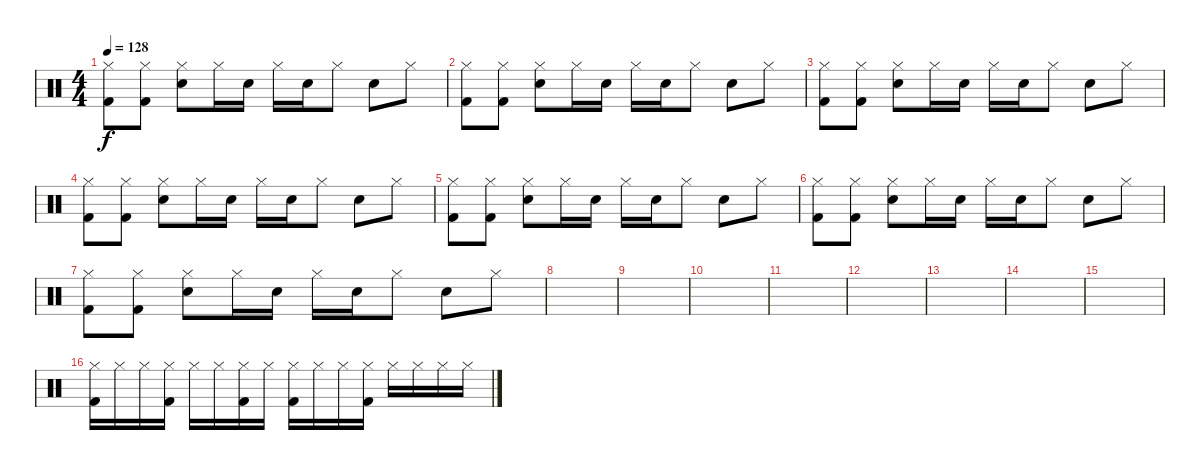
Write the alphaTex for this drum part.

\track "" {solo instrument percussion}
\staff {score}
\articulation defaults
\ts (4 4)
\tempo 128
\clef neutral
\ks c
("Hi-Hat (closed)" "Kick (hit) 2").8{dy f} ("Hi-Hat (closed)" "Kick (hit) 2").8 ("Hi-Hat (closed)" "Snare (hit) 2").8 "Hi-Hat (closed)".16 "Snare (hit) 2".16 "Hi-Hat (closed)".16 "Snare (hit) 2".16 "Hi-Hat (closed)".8 "Snare (hit) 2".8 "Hi-Hat (closed)".8 |
("Hi-Hat (closed)" "Kick (hit) 2").8 ("Hi-Hat (closed)" "Kick (hit) 2").8 ("Hi-Hat (closed)" "Snare (hit) 2").8 "Hi-Hat (closed)".16 "Snare (hit) 2".16 "Hi-Hat (closed)".16 "Snare (hit) 2".16 "Hi-Hat (closed)".8 "Snare (hit) 2".8 "Hi-Hat (closed)".8 |
("Hi-Hat (closed)" "Kick (hit) 2").8 ("Hi-Hat (closed)" "Kick (hit) 2").8 ("Hi-Hat (closed)" "Snare (hit) 2").8 "Hi-Hat (closed)".16 "Snare (hit) 2".16 "Hi-Hat (closed)".16 "Snare (hit) 2".16 "Hi-Hat (closed)".8 "Snare (hit) 2".8 "Hi-Hat (closed)".8 |
("Hi-Hat (closed)" "Kick (hit) 2").8 ("Hi-Hat (closed)" "Kick (hit) 2").8 ("Hi-Hat (closed)" "Snare (hit) 2").8 "Hi-Hat (closed)".16 "Snare (hit) 2".16 "Hi-Hat (closed)".16 "Snare (hit) 2".16 "Hi-Hat (closed)".8 "Snare (hit) 2".8 "Hi-Hat (closed)".8 |
("Hi-Hat (closed)" "Kick (hit) 2").8 ("Hi-Hat (closed)" "Kick (hit) 2").8 ("Hi-Hat (closed)" "Snare (hit) 2").8 "Hi-Hat (closed)".16 "Snare (hit) 2".16 "Hi-Hat (closed)".16 "Snare (hit) 2".16 "Hi-Hat (closed)".8 "Snare (hit) 2".8 "Hi-Hat (closed)".8 |
("Hi-Hat (closed)" "Kick (hit) 2").8 ("Hi-Hat (closed)" "Kick (hit) 2").8 ("Hi-Hat (closed)" "Snare (hit) 2").8 "Hi-Hat (closed)".16 "Snare (hit) 2".16 "Hi-Hat (closed)".16 "Snare (hit) 2".16 "Hi-Hat (closed)".8 "Snare (hit) 2".8 "Hi-Hat (closed)".8 |
("Hi-Hat (closed)" "Kick (hit) 2").8 ("Hi-Hat (closed)" "Kick (hit) 2").8 ("Hi-Hat (closed)" "Snare (hit) 2").8 "Hi-Hat (closed)".16 "Snare (hit) 2".16 "Hi-Hat (closed)".16 "Snare (hit) 2".16 "Hi-Hat (closed)".8 "Snare (hit) 2".8 "Hi-Hat (closed)".8 |
|
|
|
|
|
|
|
|
("Kick (hit) 2" "Hi-Hat (closed)").16 "Hi-Hat (closed)".16 "Hi-Hat (closed)".16 ("Kick (hit) 2" "Hi-Hat (closed)").16 "Hi-Hat (closed)".16 "Hi-Hat (closed)".16 ("Kick (hit) 2" "Hi-Hat (closed)").16 "Hi-Hat (closed)".16 ("Kick (hit) 2" "Hi-Hat (closed)").16 "Hi-Hat (closed)".16 "Hi-Hat (closed)".16 ("Kick (hit) 2" "Hi-Hat (closed)").16 "Hi-Hat (closed)".16 "Hi-Hat (closed)".16 "Hi-Hat (closed)".16 "Hi-Hat (closed)".16
